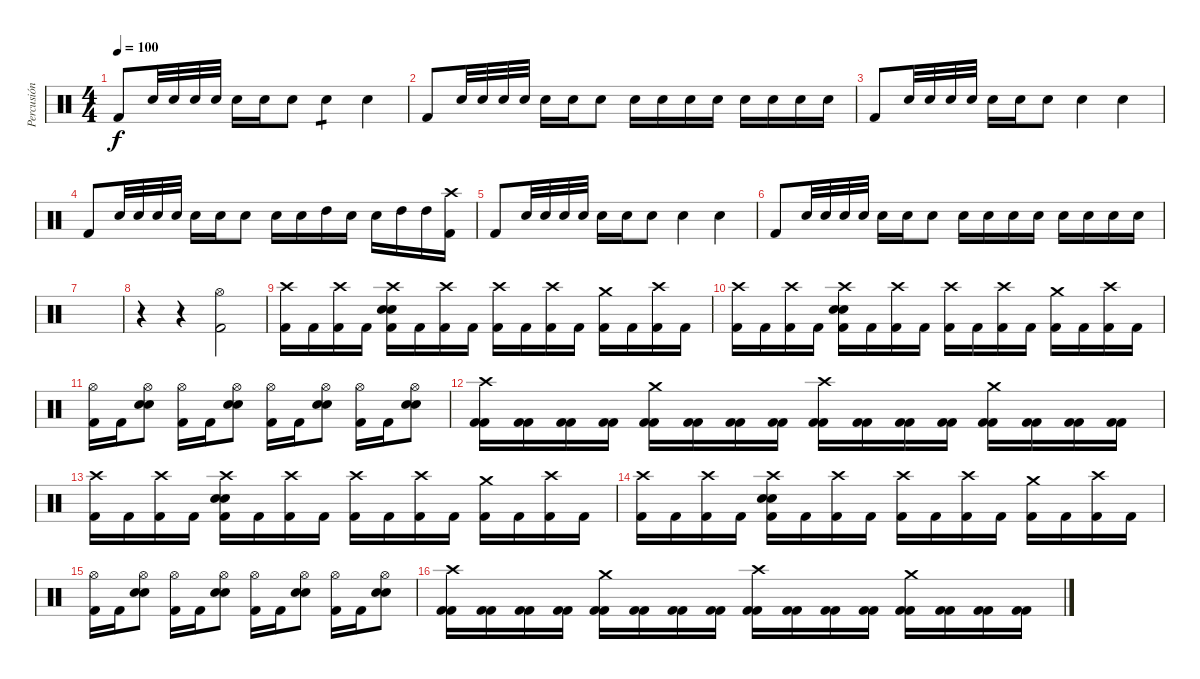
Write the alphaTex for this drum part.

\track ("Percusión" "Percusión") {instrument percussion}
\staff {score}
\articulation defaults
\ts (4 4)
\tempo 100
\clef neutral
\ks c "Kick (hit) 2".8{dy f} "Snare (hit) 2".32 "Snare (hit) 2".32 "Snare (hit) 2".32 "Snare (hit) 2".32 "Snare (hit) 2".16 "Snare (hit) 2".16 "Snare (hit) 2".8 "Snare (hit) 2".4{tp 1} "Snare (hit) 2".4
|
"Kick (hit) 2".8 "Snare (hit) 2".32 "Snare (hit) 2".32 "Snare (hit) 2".32 "Snare (hit) 2".32 "Snare (hit) 2".16 "Snare (hit) 2".16 "Snare (hit) 2".8 "Snare (hit) 2".16 "Snare (hit) 2".16 "Snare (hit) 2".16 "Snare (hit) 2".16 "Snare (hit) 2".16 "Snare (hit) 2".16 "Snare (hit) 2".16 "Snare (hit) 2".16 |
"Kick (hit) 2".8 "Snare (hit) 2".32 "Snare (hit) 2".32 "Snare (hit) 2".32 "Snare (hit) 2".32 "Snare (hit) 2".16 "Snare (hit) 2".16 "Snare (hit) 2".8 "Snare (hit) 2".4 "Snare (hit) 2".4 |
"Kick (hit) 2".8 "Snare (hit) 2".32 "Snare (hit) 2".32 "Snare (hit) 2".32 "Snare (hit) 2".32 "Snare (hit) 2".16 "Snare (hit) 2".16 "Snare (hit) 2".8 "Snare (hit) 2".16 "Snare (hit) 2".16 "High Tom (hit)".16 "Snare (hit) 2".16 "Snare (hit) 2".16 "High Tom (hit)".16 "High Tom (hit)".16 ("Crash high (hit)" "Kick (hit) 2").16 |
"Kick (hit) 2".8 "Snare (hit) 2".32 "Snare (hit) 2".32 "Snare (hit) 2".32 "Snare (hit) 2".32 "Snare (hit) 2".16 "Snare (hit) 2".16 "Snare (hit) 2".8 "Snare (hit) 2".4 "Snare (hit) 2".4 |
"Kick (hit) 2".8 "Snare (hit) 2".32 "Snare (hit) 2".32 "Snare (hit) 2".32 "Snare (hit) 2".32 "Snare (hit) 2".16 "Snare (hit) 2".16 "Snare (hit) 2".8 "Snare (hit) 2".16 "Snare (hit) 2".16 "Snare (hit) 2".16 "Snare (hit) 2".16 "Snare (hit) 2".16 "Snare (hit) 2".16 "Snare (hit) 2".16 "Snare (hit) 2".16 |
|
r.4 r.4 ("Hi-Hat (open)" "Kick (hit) 2").2 |
("Crash high (hit)" "Kick (hit) 2").16 "Kick (hit) 2".16 ("Crash high (hit)" "Kick (hit) 2").16 "Kick (hit) 2".16 ("Crash high (hit)" "Electric Snare (hit)" "Electric Snare (hit)" "Kick (hit) 2").16 "Kick (hit) 2".16 ("Crash high (hit)" "Kick (hit) 2").16 "Kick (hit) 2".16 ("Crash high (hit)" "Kick (hit) 2").16 "Kick (hit) 2".16 ("Crash high (hit)" "Kick (hit) 2").16 "Kick (hit) 2".16 ("Crash medium (hit)" "Kick (hit) 2").16 "Kick (hit) 2".16 ("Crash high (hit)" "Kick (hit) 2").16 "Kick (hit) 2".16 |
("Crash high (hit)" "Kick (hit) 2").16 "Kick (hit) 2".16 ("Crash high (hit)" "Kick (hit) 2").16 "Kick (hit) 2".16 ("Crash high (hit)" "Electric Snare (hit)" "Electric Snare (hit)" "Kick (hit) 2").16 "Kick (hit) 2".16 ("Crash high (hit)" "Kick (hit) 2").16 "Kick (hit) 2".16 ("Crash high (hit)" "Kick (hit) 2").16 "Kick (hit) 2".16 ("Crash high (hit)" "Kick (hit) 2").16 "Kick (hit) 2".16 ("Crash medium (hit)" "Kick (hit) 2").16 "Kick (hit) 2".16 ("Crash high (hit)" "Kick (hit) 2").16 "Kick (hit) 2".16 |
("Hi-Hat (open)" "Kick (hit) 2").16 "Kick (hit) 2".16 ("Hi-Hat (open)" "Electric Snare (hit)" "Electric Snare (hit)").8 ("Hi-Hat (open)" "Kick (hit) 2").16 "Kick (hit) 2".16 ("Hi-Hat (open)" "Electric Snare (hit)" "Electric Snare (hit)").8 ("Hi-Hat (open)" "Kick (hit) 2").16 "Kick (hit) 2".16 ("Hi-Hat (open)" "Electric Snare (hit)" "Electric Snare (hit)").8 ("Hi-Hat (open)" "Kick (hit) 2").16 "Kick (hit) 2".16 ("Hi-Hat (open)" "Electric Snare (hit)" "Electric Snare (hit)").8 |
("Crash high (hit)" "Kick (hit) 2" "Kick (hit) 2").16 ("Kick (hit) 2" "Kick (hit) 2").16 ("Kick (hit) 2" "Kick (hit) 2").16 ("Kick (hit) 2" "Kick (hit) 2").16 ("Crash medium (hit)" "Kick (hit) 2" "Kick (hit) 2").16 ("Kick (hit) 2" "Kick (hit) 2").16 ("Kick (hit) 2" "Kick (hit) 2").16 ("Kick (hit) 2" "Kick (hit) 2").16 ("Crash high (hit)" "Kick (hit) 2" "Kick (hit) 2").16 ("Kick (hit) 2" "Kick (hit) 2").16 ("Kick (hit) 2" "Kick (hit) 2").16 ("Kick (hit) 2" "Kick (hit) 2").16 ("Crash medium (hit)" "Kick (hit) 2" "Kick (hit) 2").16 ("Kick (hit) 2" "Kick (hit) 2").16 ("Kick (hit) 2" "Kick (hit) 2").16 ("Kick (hit) 2" "Kick (hit) 2").16 |
("Crash high (hit)" "Kick (hit) 2").16 "Kick (hit) 2".16 ("Crash high (hit)" "Kick (hit) 2").16 "Kick (hit) 2".16 ("Crash high (hit)" "Electric Snare (hit)" "Electric Snare (hit)" "Kick (hit) 2").16 "Kick (hit) 2".16 ("Crash high (hit)" "Kick (hit) 2").16 "Kick (hit) 2".16 ("Crash high (hit)" "Kick (hit) 2").16 "Kick (hit) 2".16 ("Crash high (hit)" "Kick (hit) 2").16 "Kick (hit) 2".16 ("Crash medium (hit)" "Kick (hit) 2").16 "Kick (hit) 2".16 ("Crash high (hit)" "Kick (hit) 2").16 "Kick (hit) 2".16 |
("Crash high (hit)" "Kick (hit) 2").16 "Kick (hit) 2".16 ("Crash high (hit)" "Kick (hit) 2").16 "Kick (hit) 2".16 ("Crash high (hit)" "Electric Snare (hit)" "Electric Snare (hit)" "Kick (hit) 2").16 "Kick (hit) 2".16 ("Crash high (hit)" "Kick (hit) 2").16 "Kick (hit) 2".16 ("Crash high (hit)" "Kick (hit) 2").16 "Kick (hit) 2".16 ("Crash high (hit)" "Kick (hit) 2").16 "Kick (hit) 2".16 ("Crash medium (hit)" "Kick (hit) 2").16 "Kick (hit) 2".16 ("Crash high (hit)" "Kick (hit) 2").16 "Kick (hit) 2".16 |
("Hi-Hat (open)" "Kick (hit) 2").16 "Kick (hit) 2".16 ("Hi-Hat (open)" "Electric Snare (hit)" "Electric Snare (hit)").8 ("Hi-Hat (open)" "Kick (hit) 2").16 "Kick (hit) 2".16 ("Hi-Hat (open)" "Electric Snare (hit)" "Electric Snare (hit)").8 ("Hi-Hat (open)" "Kick (hit) 2").16 "Kick (hit) 2".16 ("Hi-Hat (open)" "Electric Snare (hit)" "Electric Snare (hit)").8 ("Hi-Hat (open)" "Kick (hit) 2").16 "Kick (hit) 2".16 ("Hi-Hat (open)" "Electric Snare (hit)" "Electric Snare (hit)").8 |
("Crash high (hit)" "Kick (hit) 2" "Kick (hit) 2").16 ("Kick (hit) 2" "Kick (hit) 2").16 ("Kick (hit) 2" "Kick (hit) 2").16 ("Kick (hit) 2" "Kick (hit) 2").16 ("Crash medium (hit)" "Kick (hit) 2" "Kick (hit) 2").16 ("Kick (hit) 2" "Kick (hit) 2").16 ("Kick (hit) 2" "Kick (hit) 2").16 ("Kick (hit) 2" "Kick (hit) 2").16 ("Crash high (hit)" "Kick (hit) 2" "Kick (hit) 2").16 ("Kick (hit) 2" "Kick (hit) 2").16 ("Kick (hit) 2" "Kick (hit) 2").16 ("Kick (hit) 2" "Kick (hit) 2").16 ("Crash medium (hit)" "Kick (hit) 2" "Kick (hit) 2").16 ("Kick (hit) 2" "Kick (hit) 2").16 ("Kick (hit) 2" "Kick (hit) 2").16 ("Kick (hit) 2" "Kick (hit) 2").16
